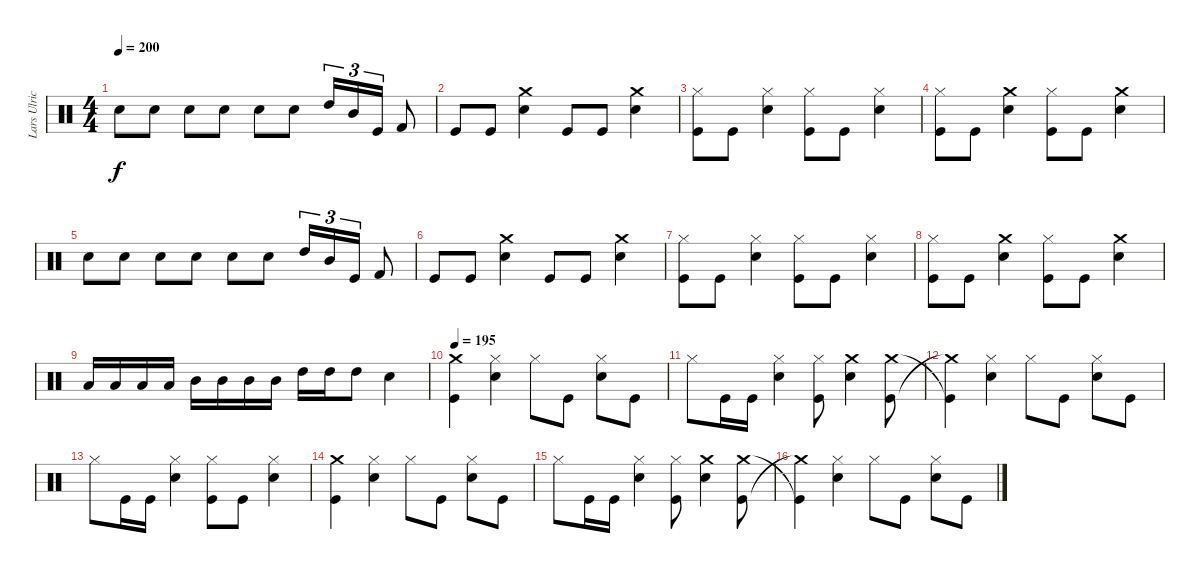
\track ("Lars Ulrich (Drums)" "Lars Ulric") {instrument percussion}
\staff {score}
\articulation defaults
\ts (4 4)
\tempo 200
\clef neutral
\ks c "Snare (hit) 2".8{dy f} "Snare (hit) 2".8 "Snare (hit) 2".8 "Snare (hit) 2".8 "Snare (hit) 2".8 "Snare (hit) 2".8 "High Tom (hit)".16{tu (3 2)} "Mid Tom (hit)".16{tu (3 2)} "Kick (hit)".16{tu (3 2)} "Kick (hit) 2".8
|
"Kick (hit)".8 "Kick (hit)".8 ("Crash medium (hit)" "Snare (hit) 2").4 "Kick (hit)".8 "Kick (hit)".8 ("Crash medium (hit)" "Snare (hit) 2").4 |
("Kick (hit)" "Hi-Hat (closed)").8 "Kick (hit)".8 ("Snare (hit) 2" "Hi-Hat (closed)").4 ("Kick (hit)" "Hi-Hat (closed)").8 "Kick (hit)".8 ("Snare (hit) 2" "Hi-Hat (closed)").4 |
("Kick (hit)" "Hi-Hat (closed)").8 "Kick (hit)".8 ("Snare (hit) 2" "Crash medium (hit)").4 ("Kick (hit)" "Hi-Hat (closed)").8 "Kick (hit)".8 ("Crash medium (hit)" "Snare (hit) 2").4 |
"Snare (hit) 2".8 "Snare (hit) 2".8 "Snare (hit) 2".8 "Snare (hit) 2".8 "Snare (hit) 2".8 "Snare (hit) 2".8 "High Tom (hit)".16{tu (3 2)} "Mid Tom (hit)".16{tu (3 2)} "Kick (hit)".16{tu (3 2)} "Kick (hit) 2".8 |
"Kick (hit)".8 "Kick (hit)".8 ("Crash medium (hit)" "Snare (hit) 2").4 "Kick (hit)".8 "Kick (hit)".8 ("Crash medium (hit)" "Snare (hit) 2").4 |
("Kick (hit)" "Hi-Hat (closed)").8 "Kick (hit)".8 ("Snare (hit) 2" "Hi-Hat (closed)").4 ("Kick (hit)" "Hi-Hat (closed)").8 "Kick (hit)".8 ("Snare (hit) 2" "Hi-Hat (closed)").4 |
("Kick (hit)" "Hi-Hat (closed)").8 "Kick (hit)".8 ("Snare (hit) 2" "Crash medium (hit)").4 ("Kick (hit)" "Hi-Hat (closed)").8 "Kick (hit)".8 ("Crash medium (hit)" "Snare (hit) 2").4 |
"Low Tom (hit)".16 "Low Tom (hit)".16 "Low Tom (hit)".16 "Low Tom (hit)".16 "Mid Tom (hit)".16 "Mid Tom (hit)".16 "Mid Tom (hit)".16 "Mid Tom (hit)".16 "High Tom (hit)".16 "High Tom (hit)".16 "High Tom (hit)".8 "Snare (hit) 2".4 |
\tempo 195
("Kick (hit)" "Crash medium (hit)").4 ("Hi-Hat (closed)" "Snare (hit) 2").4 "Hi-Hat (closed)".8 "Kick (hit)".8 ("Snare (hit) 2" "Hi-Hat (closed)").8 "Kick (hit)".8 |
"Hi-Hat (closed)".8 "Kick (hit)".16 "Kick (hit)".16 ("Snare (hit) 2" "Hi-Hat (closed)").4 ("Kick (hit)" "Hi-Hat (closed)").8 ("Snare (hit) 2" "Crash medium (hit)").4 ("Crash medium (hit)" "Kick (hit)").8 |
("Kick (hit)"{t} "Crash medium (hit)"{t}).4 ("Hi-Hat (closed)" "Snare (hit) 2").4 "Hi-Hat (closed)".8 "Kick (hit)".8 ("Snare (hit) 2" "Hi-Hat (closed)").8 "Kick (hit)".8 |
"Hi-Hat (closed)".8 "Kick (hit)".16 "Kick (hit)".16 ("Snare (hit) 2" "Hi-Hat (closed)").4 ("Hi-Hat (closed)" "Kick (hit)").8 "Kick (hit)".8 ("Snare (hit) 2" "Hi-Hat (closed)").4 |
("Kick (hit)" "Crash medium (hit)").4 ("Hi-Hat (closed)" "Snare (hit) 2").4 "Hi-Hat (closed)".8 "Kick (hit)".8 ("Snare (hit) 2" "Hi-Hat (closed)").8 "Kick (hit)".8 |
"Hi-Hat (closed)".8 "Kick (hit)".16 "Kick (hit)".16 ("Snare (hit) 2" "Hi-Hat (closed)").4 ("Kick (hit)" "Hi-Hat (closed)").8 ("Snare (hit) 2" "Crash medium (hit)").4 ("Crash medium (hit)" "Kick (hit)").8 |
("Kick (hit)"{t} "Crash medium (hit)"{t}).4 ("Hi-Hat (closed)" "Snare (hit) 2").4 "Hi-Hat (closed)".8 "Kick (hit)".8 ("Snare (hit) 2" "Hi-Hat (closed)").8 "Kick (hit)".8
